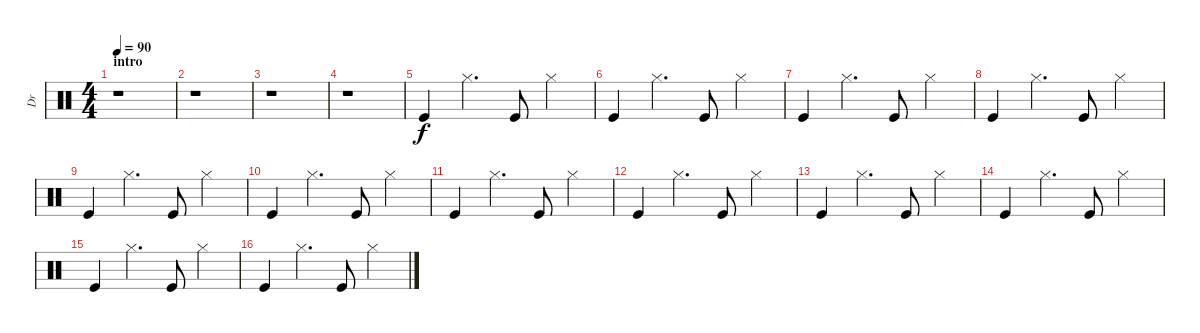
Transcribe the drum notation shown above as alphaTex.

\track ("Dr" "Dr") {instrument percussion}
\staff {score}
\articulation defaults
\ts (4 4)
\section ("" "intro")
\tempo 90
\clef neutral
\ks c
r.1{dy f} |
r.1 |
r.1 |
r.1 |
"Kick (hit)".4 "Hi-Hat (closed)".4{d} "Kick (hit)".8 "Hi-Hat (closed)".4 |
"Kick (hit)".4 "Hi-Hat (closed)".4{d} "Kick (hit)".8 "Hi-Hat (closed)".4 |
"Kick (hit)".4 "Hi-Hat (closed)".4{d} "Kick (hit)".8 "Hi-Hat (closed)".4 |
"Kick (hit)".4 "Hi-Hat (closed)".4{d} "Kick (hit)".8 "Hi-Hat (closed)".4 |
"Kick (hit)".4 "Hi-Hat (closed)".4{d} "Kick (hit)".8 "Hi-Hat (closed)".4 |
"Kick (hit)".4 "Hi-Hat (closed)".4{d} "Kick (hit)".8 "Hi-Hat (closed)".4 |
"Kick (hit)".4 "Hi-Hat (closed)".4{d} "Kick (hit)".8 "Hi-Hat (closed)".4 |
"Kick (hit)".4 "Hi-Hat (closed)".4{d} "Kick (hit)".8 "Hi-Hat (closed)".4 |
"Kick (hit)".4 "Hi-Hat (closed)".4{d} "Kick (hit)".8 "Hi-Hat (closed)".4 |
"Kick (hit)".4 "Hi-Hat (closed)".4{d} "Kick (hit)".8 "Hi-Hat (closed)".4 |
"Kick (hit)".4 "Hi-Hat (closed)".4{d} "Kick (hit)".8 "Hi-Hat (closed)".4 |
"Kick (hit)".4 "Hi-Hat (closed)".4{d} "Kick (hit)".8 "Hi-Hat (closed)".4
